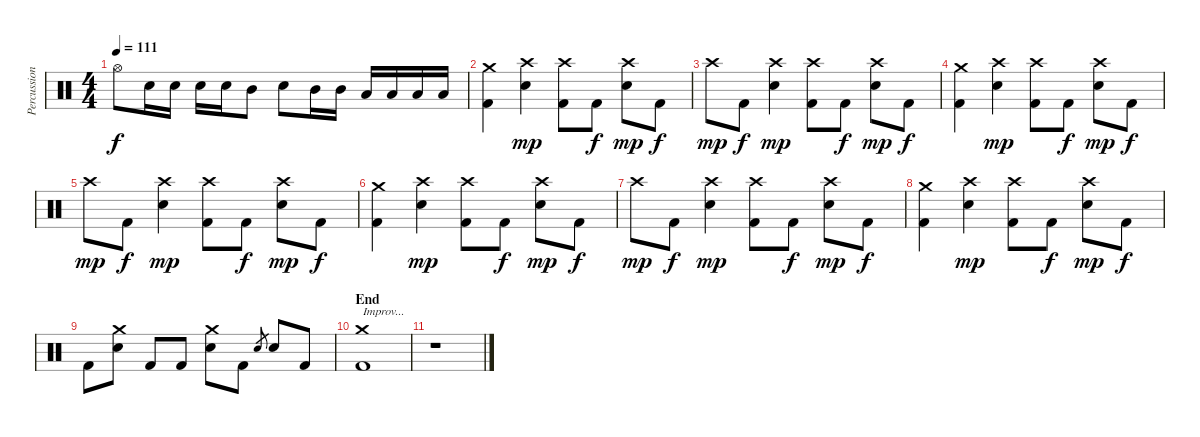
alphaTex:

\track ("Percussion" "Percussion") {instrument percussion}
\staff {score}
\articulation defaults
\ts (4 4)
\tempo 111
\clef neutral
\ks c "Hi-Hat (open)".8{dy f} "Electric Snare (hit)".16 "Electric Snare (hit)".16 "Electric Snare (hit)".16 "Electric Snare (hit)".16 "Mid Tom (hit)".8 "Electric Snare (hit)".8 "Mid Tom (hit)".16 "Mid Tom (hit)".16 "Low Floor Tom (hit)".16 "Low Floor Tom (hit)".16 "Low Floor Tom (hit)".16 "Low Floor Tom (hit)".16
|
("Crash medium (hit)" "Kick (hit) 2").4 ("Crash high (hit)" "Electric Snare (hit)").4{dy mp} ("Crash high (hit)" "Kick (hit) 2").8 "Kick (hit) 2".8{dy f} ("Crash high (hit)" "Electric Snare (hit)").8{dy mp} "Kick (hit) 2".8{dy f} |
"Crash high (hit)".8{dy mp} "Kick (hit) 2".8{dy f} ("Crash high (hit)" "Electric Snare (hit)").4{dy mp} ("Crash high (hit)" "Kick (hit) 2").8 "Kick (hit) 2".8{dy f} ("Crash high (hit)" "Electric Snare (hit)").8{dy mp} "Kick (hit) 2".8{dy f} |
("Crash medium (hit)" "Kick (hit) 2").4 ("Crash high (hit)" "Electric Snare (hit)").4{dy mp} ("Crash high (hit)" "Kick (hit) 2").8 "Kick (hit) 2".8{dy f} ("Crash high (hit)" "Electric Snare (hit)").8{dy mp} "Kick (hit) 2".8{dy f} |
"Crash high (hit)".8{dy mp} "Kick (hit) 2".8{dy f} ("Crash high (hit)" "Electric Snare (hit)").4{dy mp} ("Crash high (hit)" "Kick (hit) 2").8 "Kick (hit) 2".8{dy f} ("Crash high (hit)" "Electric Snare (hit)").8{dy mp} "Kick (hit) 2".8{dy f} |
("Crash medium (hit)" "Kick (hit) 2").4 ("Crash high (hit)" "Electric Snare (hit)").4{dy mp} ("Crash high (hit)" "Kick (hit) 2").8 "Kick (hit) 2".8{dy f} ("Crash high (hit)" "Electric Snare (hit)").8{dy mp} "Kick (hit) 2".8{dy f} |
"Crash high (hit)".8{dy mp} "Kick (hit) 2".8{dy f} ("Crash high (hit)" "Electric Snare (hit)").4{dy mp} ("Crash high (hit)" "Kick (hit) 2").8 "Kick (hit) 2".8{dy f} ("Crash high (hit)" "Electric Snare (hit)").8{dy mp} "Kick (hit) 2".8{dy f} |
("Crash medium (hit)" "Kick (hit) 2").4 ("Crash high (hit)" "Electric Snare (hit)").4{dy mp} ("Crash high (hit)" "Kick (hit) 2").8 "Kick (hit) 2".8{dy f} ("Crash high (hit)" "Electric Snare (hit)").8{dy mp} "Kick (hit) 2".8{dy f} |
"Kick (hit) 2".8 ("Crash medium (hit)" "Electric Snare (hit)").8 "Kick (hit) 2".8 "Kick (hit) 2".8 ("Crash medium (hit)" "Electric Snare (hit)").8 "Kick (hit) 2".8 "Electric Snare (hit)".8{gr} "Electric Snare (hit)".8 "Kick (hit) 2".8 |
\section ("" "End")
("Crash medium (hit)" "Kick (hit) 2").1{txt "Improv..."} |
r.1
